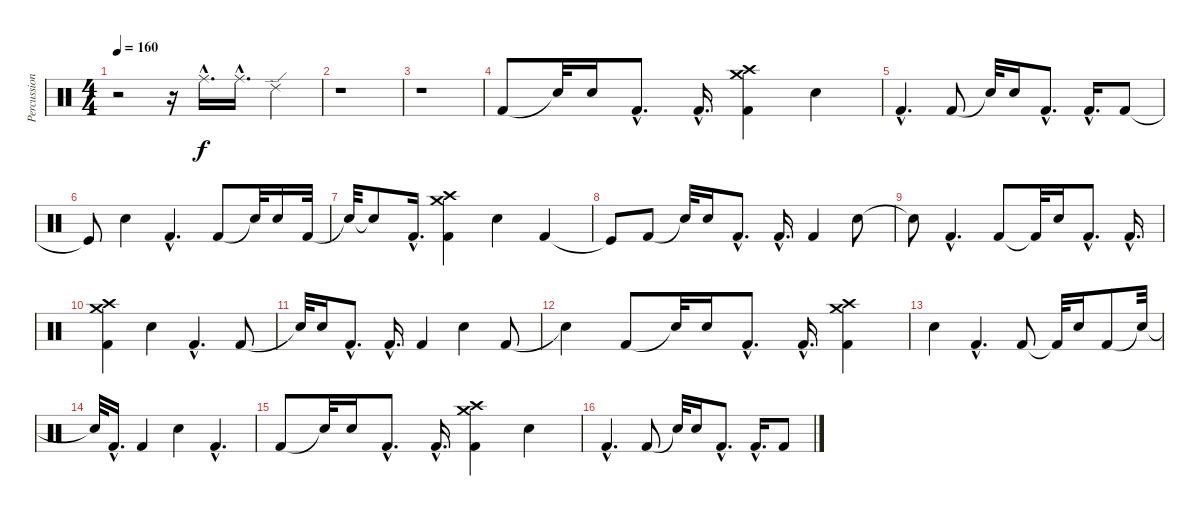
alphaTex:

\track ("Percussion" "Percussion") {instrument percussion}
\staff {score}
\articulation defaults
\ts (4 4)
\tempo 160
\clef neutral
\ks c
r.2{dy f} r.16 "Ride (middle)"{hac}.16{d} "Ride (middle)"{hac}.16{d} "Ride (edge) 2".4 |
r.1 |
r.1 |
"Kick (hit) 2".8 "Snare (hit)"{t}.32 "Electric Snare (hit)".16 "Kick (hit) 2"{hac}.8{d} "Kick (hit) 2"{hac}.16{d} ("Crash medium (hit)" "Crash high (hit)" "Kick (hit) 2").4 "Electric Snare (hit)".4 |
"Kick (hit) 2"{hac}.4{d} "Kick (hit) 2".8 "Snare (hit)"{t}.32 "Electric Snare (hit)".16 "Kick (hit) 2"{hac}.8{d} "Kick (hit) 2"{hac}.16{d} "Kick (hit) 2".8 |
"Kick (hit)"{t}.8 "Electric Snare (hit)".4 "Kick (hit) 2"{hac}.4{d} "Kick (hit) 2".8 "Snare (hit)"{t}.32 "Electric Snare (hit)".16 "Kick (hit) 2".32 |
"Snare (hit)"{t}.32 "Snare (hit)"{t}.8 "Kick (hit) 2"{hac}.16{d} ("Crash medium (hit)" "Crash high (hit)" "Kick (hit) 2").4 "Electric Snare (hit)".4 "Kick (hit) 2".4 |
"Kick (hit)"{t}.8 "Kick (hit) 2".8 "Snare (hit)"{t}.32 "Electric Snare (hit)".16 "Kick (hit) 2"{hac}.8{d} "Kick (hit) 2"{hac}.16{d} "Kick (hit) 2".4 "Electric Snare (hit)".8 |
"Snare (hit)"{t}.8 "Kick (hit) 2"{hac}.4{d} "Kick (hit) 2".8 "Kick (hit) 2"{t}.32 "Electric Snare (hit)".16 "Kick (hit) 2"{hac}.8{d} "Kick (hit) 2"{hac}.16{d} |
("Crash medium (hit)" "Crash high (hit)" "Kick (hit) 2").4 "Electric Snare (hit)".4 "Kick (hit) 2"{hac}.4{d} "Kick (hit) 2".8 |
"Snare (hit)"{t}.32 "Electric Snare (hit)".16 "Kick (hit) 2"{hac}.8{d} "Kick (hit) 2"{hac}.16{d} "Kick (hit) 2".4 "Electric Snare (hit)".4 "Kick (hit) 2".8 |
"Snare (hit)"{t}.4 "Kick (hit) 2".8 "Snare (hit)"{t}.32 "Electric Snare (hit)".16 "Kick (hit) 2"{hac}.8{d} "Kick (hit) 2"{hac}.16{d} ("Crash medium (hit)" "Crash high (hit)" "Kick (hit) 2").4 |
"Electric Snare (hit)".4 "Kick (hit) 2"{hac}.4{d} "Kick (hit) 2".8 "Kick (hit) 2"{t}.32 "Electric Snare (hit)".16 "Kick (hit) 2".8 "Snare (hit)"{t}.32 |
"Snare (hit)"{t}.32 "Kick (hit) 2"{hac}.16{d} "Kick (hit) 2".4 "Electric Snare (hit)".4 "Kick (hit) 2"{hac}.4{d} |
"Kick (hit) 2".8 "Snare (hit)"{t}.32 "Electric Snare (hit)".16 "Kick (hit) 2"{hac}.8{d} "Kick (hit) 2"{hac}.16{d} ("Crash medium (hit)" "Crash high (hit)" "Kick (hit) 2").4 "Electric Snare (hit)".4 |
"Kick (hit) 2"{hac}.4{d} "Kick (hit) 2".8 "Snare (hit)"{t}.32 "Electric Snare (hit)".16 "Kick (hit) 2"{hac}.8{d} "Kick (hit) 2"{hac}.16{d} "Kick (hit) 2".8
